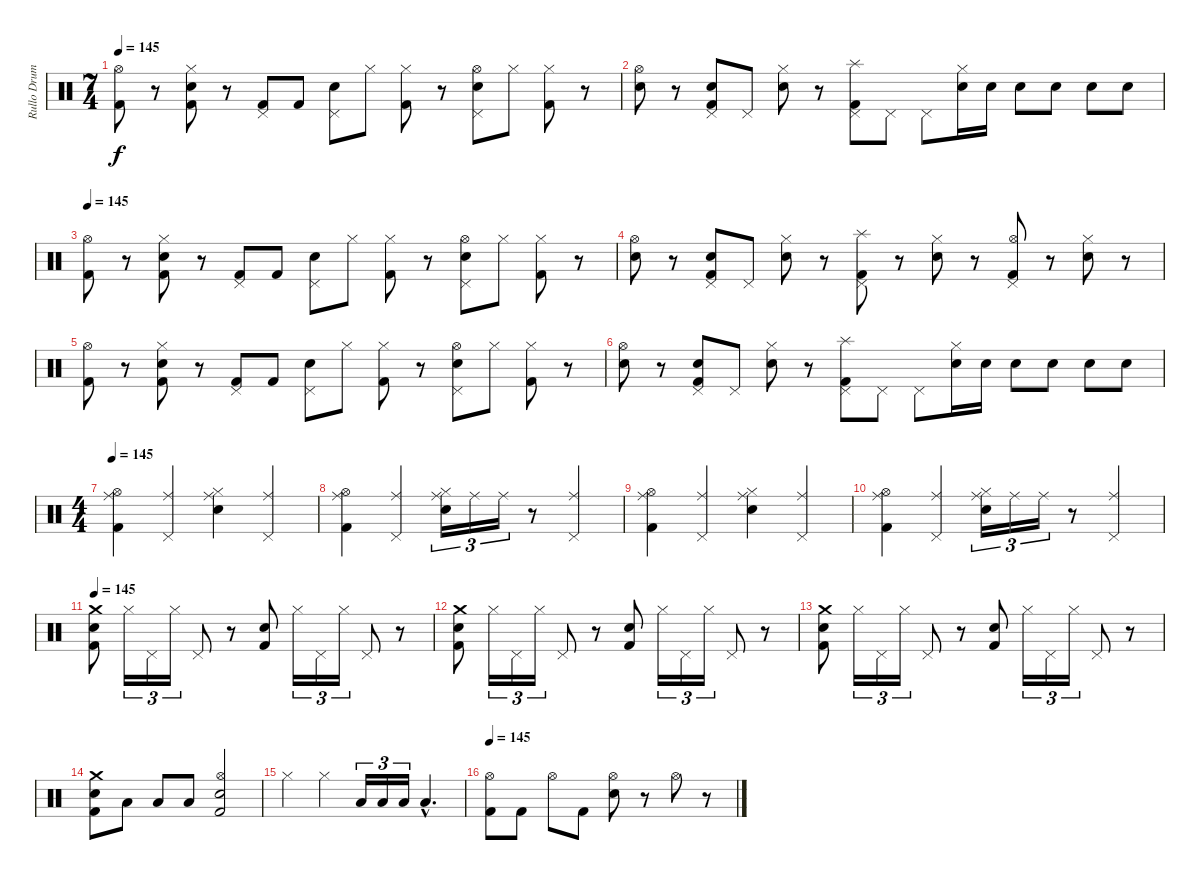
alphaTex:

\track ("Rullo Drums" "Rullo Drum") {instrument percussion}
\staff {score}
\articulation defaults
\ts (7 4)
\tempo 145
\clef neutral
\ks c
("Kick (hit) 2" "Hi-Hat (open)").8{dy f} r.8 ("Snare (hit) 2" "Hi-Hat (closed)" "Kick (hit) 2").8 r.8 ("Kick (hit) 2" "Pedal Hi-Hat (hit)").8 "Kick (hit) 2".8 ("Snare (hit) 2" "Pedal Hi-Hat (hit)").8 "Hi-Hat (closed)".8 ("Kick (hit) 2" "Hi-Hat (closed)").8 r.8 ("Snare (hit) 2" "Pedal Hi-Hat (hit)" "Hi-Hat (open)").8 "Hi-Hat (closed)".8 ("Kick (hit) 2" "Hi-Hat (closed)").8 r.8 |
("Snare (hit) 2" "Hi-Hat (open)").8 r.8 ("Snare (hit) 2" "Kick (hit) 2" "Pedal Hi-Hat (hit)").8 "Pedal Hi-Hat (hit)".8 ("Snare (hit) 2" "Hi-Hat (closed)").8 r.8 ("Kick (hit) 2" "Pedal Hi-Hat (hit)" "Splash (hit)").8 "Pedal Hi-Hat (hit)".8 "Pedal Hi-Hat (hit)".8 ("Snare (hit) 2" "Hi-Hat (closed)").16 "Snare (hit) 2".16 "Snare (hit) 2".8 "Snare (hit) 2".8 "Snare (hit) 2".8 "Snare (hit) 2".8 |
\tempo 145
("Kick (hit) 2" "Hi-Hat (open)").8 r.8 ("Snare (hit) 2" "Hi-Hat (closed)" "Kick (hit) 2").8 r.8 ("Kick (hit) 2" "Pedal Hi-Hat (hit)").8 "Kick (hit) 2".8 ("Snare (hit) 2" "Pedal Hi-Hat (hit)").8 "Hi-Hat (closed)".8 ("Kick (hit) 2" "Hi-Hat (closed)").8 r.8 ("Snare (hit) 2" "Pedal Hi-Hat (hit)" "Hi-Hat (open)").8 "Hi-Hat (closed)".8 ("Kick (hit) 2" "Hi-Hat (closed)").8 r.8 |
("Snare (hit) 2" "Hi-Hat (open)").8 r.8 ("Snare (hit) 2" "Kick (hit) 2" "Pedal Hi-Hat (hit)").8 "Pedal Hi-Hat (hit)".8 ("Snare (hit) 2" "Hi-Hat (closed)").8 r.8 ("Kick (hit) 2" "Pedal Hi-Hat (hit)" "Splash (hit)").8 r.8 ("Snare (hit) 2" "Hi-Hat (closed)").8 r.8 ("Kick (hit) 2" "Pedal Hi-Hat (hit)" "Hi-Hat (open)").8 r.8 ("Snare (hit) 2" "Hi-Hat (closed)").8 r.8 |
("Kick (hit) 2" "Hi-Hat (open)").8 r.8 ("Snare (hit) 2" "Hi-Hat (closed)" "Kick (hit) 2").8 r.8 ("Kick (hit) 2" "Pedal Hi-Hat (hit)").8 "Kick (hit) 2".8 ("Snare (hit) 2" "Pedal Hi-Hat (hit)").8 "Hi-Hat (closed)".8 ("Kick (hit) 2" "Hi-Hat (closed)").8 r.8 ("Snare (hit) 2" "Pedal Hi-Hat (hit)" "Hi-Hat (open)").8 "Hi-Hat (closed)".8 ("Kick (hit) 2" "Hi-Hat (closed)").8 r.8 |
("Snare (hit) 2" "Hi-Hat (open)").8 r.8 ("Snare (hit) 2" "Kick (hit) 2" "Pedal Hi-Hat (hit)").8 "Pedal Hi-Hat (hit)".8 ("Snare (hit) 2" "Hi-Hat (closed)").8 r.8 ("Kick (hit) 2" "Pedal Hi-Hat (hit)" "Splash (hit)").8 "Pedal Hi-Hat (hit)".8 "Pedal Hi-Hat (hit)".8 ("Snare (hit) 2" "Hi-Hat (closed)").16 "Snare (hit) 2".16 "Snare (hit) 2".8 "Snare (hit) 2".8 "Snare (hit) 2".8 "Snare (hit) 2".8 |
\ts (4 4)
\tempo 145
("Ride (middle)" "Kick (hit) 2" "Hi-Hat (open)").4 ("Ride (middle)" "Pedal Hi-Hat (hit)").4 ("Ride (middle)" "Electric Snare (hit)" "Hi-Hat (closed)").4 ("Ride (middle)" "Pedal Hi-Hat (hit)").4 |
("Ride (middle)" "Kick (hit) 2" "Hi-Hat (open)").4 ("Ride (middle)" "Pedal Hi-Hat (hit)").4 ("Ride (middle)" "Electric Snare (hit)" "Hi-Hat (closed)").16{tu (3 2)} "Ride (middle)".16{tu (3 2)} "Ride (middle)".16{tu (3 2)} r.8 ("Ride (middle)" "Pedal Hi-Hat (hit)").4 |
("Ride (middle)" "Kick (hit) 2" "Hi-Hat (open)").4 ("Ride (middle)" "Pedal Hi-Hat (hit)").4 ("Ride (middle)" "Electric Snare (hit)" "Hi-Hat (closed)").4 ("Ride (middle)" "Pedal Hi-Hat (hit)").4 |
("Ride (middle)" "Kick (hit) 2" "Hi-Hat (open)").4 ("Ride (middle)" "Pedal Hi-Hat (hit)").4 ("Ride (middle)" "Electric Snare (hit)" "Hi-Hat (closed)").16{tu (3 2)} "Ride (middle)".16{tu (3 2)} "Ride (middle)".16{tu (3 2)} r.8 ("Ride (middle)" "Pedal Hi-Hat (hit)").4 |
\tempo 145
("Electric Snare (hit)" "Kick (hit) 2" "Crash medium (hit)").8 "Hi-Hat (closed)".16{tu (3 2)} "Pedal Hi-Hat (hit)".16{tu (3 2)} "Hi-Hat (closed)".16{tu (3 2)} "Pedal Hi-Hat (hit)".8 r.8 ("Kick (hit) 2" "Electric Snare (hit)").8 "Hi-Hat (closed)".16{tu (3 2)} "Pedal Hi-Hat (hit)".16{tu (3 2)} "Hi-Hat (closed)".16{tu (3 2)} "Pedal Hi-Hat (hit)".8 r.8 |
("Electric Snare (hit)" "Kick (hit) 2" "Crash medium (hit)").8 "Hi-Hat (closed)".16{tu (3 2)} "Pedal Hi-Hat (hit)".16{tu (3 2)} "Hi-Hat (closed)".16{tu (3 2)} "Pedal Hi-Hat (hit)".8 r.8 ("Kick (hit) 2" "Electric Snare (hit)").8 "Hi-Hat (closed)".16{tu (3 2)} "Pedal Hi-Hat (hit)".16{tu (3 2)} "Hi-Hat (closed)".16{tu (3 2)} "Pedal Hi-Hat (hit)".8 r.8 |
("Electric Snare (hit)" "Kick (hit) 2" "Crash medium (hit)").8 "Hi-Hat (closed)".16{tu (3 2)} "Pedal Hi-Hat (hit)".16{tu (3 2)} "Hi-Hat (closed)".16{tu (3 2)} "Pedal Hi-Hat (hit)".8 r.8 ("Kick (hit) 2" "Electric Snare (hit)").8 "Hi-Hat (closed)".16{tu (3 2)} "Pedal Hi-Hat (hit)".16{tu (3 2)} "Hi-Hat (closed)".16{tu (3 2)} "Pedal Hi-Hat (hit)".8 r.8 |
("Electric Snare (hit)" "Kick (hit) 2" "Crash medium (hit)").8 "Low Tom (hit)".8 "Low Tom (hit)".8 "Low Tom (hit)".8 ("Snare (hit) 2" "Kick (hit) 2" "Hi-Hat (open)").2 |
"Hi-Hat (closed)".4 "Hi-Hat (closed)".4 "Low Tom (hit)".16{tu (3 2)} "Low Tom (hit)".16{tu (3 2)} "Low Tom (hit)".16{tu (3 2)} "Low Tom (hit)"{hac}.4{d} |
\tempo 145
("Kick (hit) 2" "Hi-Hat (open)").8 "Kick (hit) 2".8 "Hi-Hat (open)".8 "Kick (hit) 2".8 ("Snare (hit) 2" "Hi-Hat (open)").8 r.8 "Hi-Hat (open)".8 r.8
